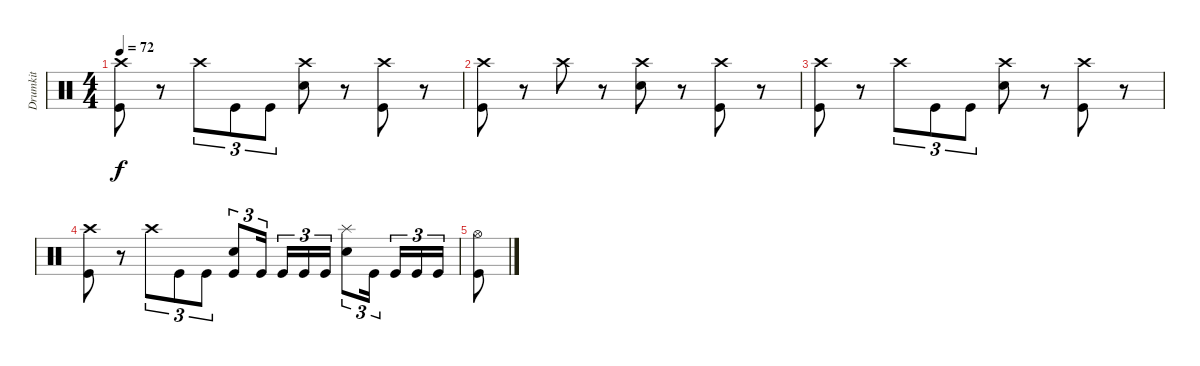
\track ("Drumkit" "Drumkit") {instrument percussion}
\staff {score}
\articulation defaults
\ts (4 4)
\tempo 72
\clef neutral
\ks c
("Kick (hit)" "Crash high (hit)").8{dy f} r.8 "Crash high (hit)".8{tu (3 2)} "Kick (hit)".8{tu (3 2)} "Kick (hit)".8{tu (3 2)} ("Snare (hit) 2" "Crash high (hit)").8 r.8 ("Kick (hit)" "Crash high (hit)").8 r.8 |
("Kick (hit)" "Crash high (hit)").8 r.8 "Crash high (hit)".8 r.8 ("Snare (hit) 2" "Crash high (hit)").8 r.8 ("Kick (hit)" "Crash high (hit)").8 r.8 |
("Kick (hit)" "Crash high (hit)").8 r.8 "Crash high (hit)".8{tu (3 2)} "Kick (hit)".8{tu (3 2)} "Kick (hit)".8{tu (3 2)} ("Snare (hit) 2" "Crash high (hit)").8 r.8 ("Kick (hit)" "Crash high (hit)").8 r.8 |
("Kick (hit)" "Crash high (hit)").8 r.8 "Crash high (hit)".8{tu (3 2)} "Kick (hit)".8{tu (3 2)} "Kick (hit)".8{tu (3 2)} ("Kick (hit)" "Snare (hit) 2").8{tu (3 2)} "Kick (hit)".16{tu (3 2) beam splitsecondary} "Kick (hit)".16{tu (3 2)} "Kick (hit)".16{tu (3 2)} "Kick (hit)".16{tu (3 2)} ("Snare (hit) 2" "Splash (hit)").8{tu (3 2)} "Kick (hit)".16{tu (3 2) beam splitsecondary} "Kick (hit)".16{tu (3 2)} "Kick (hit)".16{tu (3 2)} "Kick (hit)".16{tu (3 2)} |
("Kick (hit)" "Hi-Hat (open)").8
